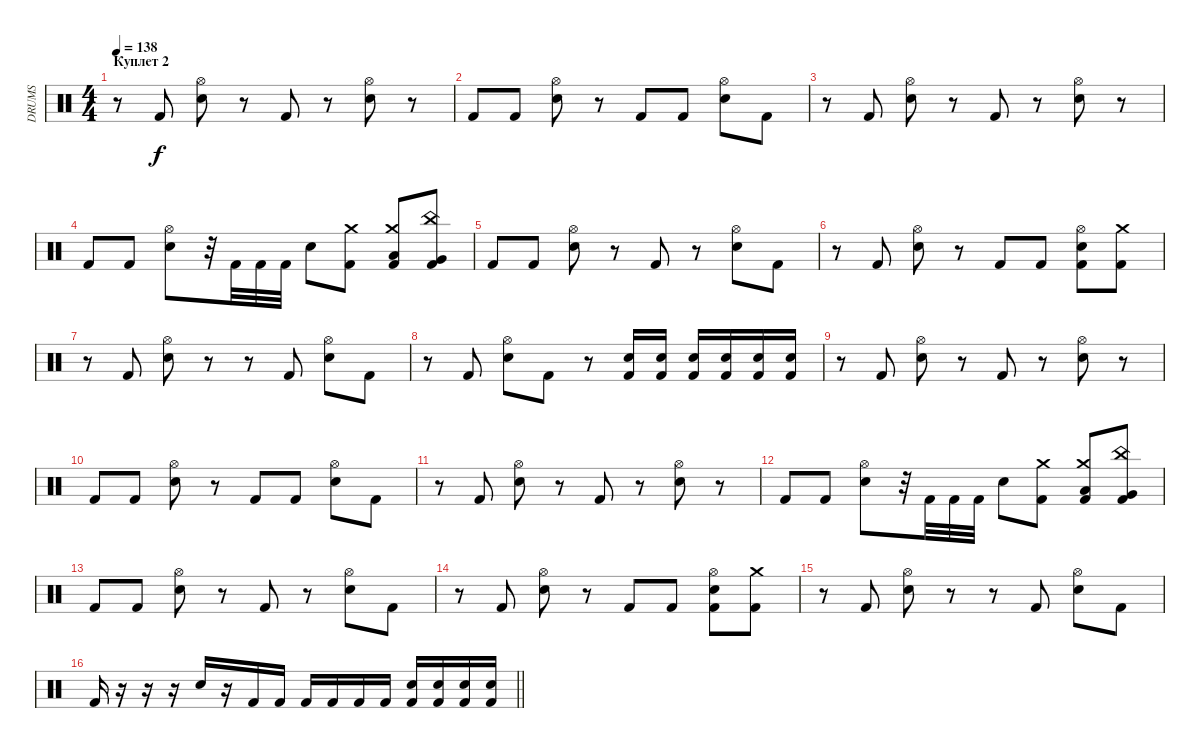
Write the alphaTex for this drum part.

\track ("DRUMS" "DRUMS") {instrument percussion}
\staff {score}
\articulation defaults
\ts (4 4)
\section ("" "Куплет 2")
\tempo 138
\clef neutral
\ks c
r.8{dy f} "Kick (hit) 2".8 ("Hi-Hat (open)" "Electric Snare (hit)").8 r.8 "Kick (hit) 2".8 r.8 ("Hi-Hat (open)" "Electric Snare (hit)").8 r.8 |
"Kick (hit) 2".8 "Kick (hit) 2".8 ("Hi-Hat (open)" "Electric Snare (hit)").8 r.8 "Kick (hit) 2".8 "Kick (hit) 2".8 ("Hi-Hat (open)" "Electric Snare (hit)").8 "Kick (hit) 2".8 |
r.8 "Kick (hit) 2".8 ("Hi-Hat (open)" "Electric Snare (hit)").8 r.8 "Kick (hit) 2".8 r.8 ("Hi-Hat (open)" "Electric Snare (hit)").8 r.8 |
"Kick (hit) 2".8 "Kick (hit) 2".8 ("Hi-Hat (open)" "Electric Snare (hit)").8 r.32 "Kick (hit) 2".32 "Kick (hit) 2".32 "Kick (hit) 2".32 "Electric Snare (hit)".8 ("Crash medium (hit)" "Kick (hit) 2").8 ("Crash medium (hit)" "Low Floor Tom (hit)" "Kick (hit) 2").8 ("China (hit)" "Very Low Tom (hit)" "Kick (hit) 2").8 |
"Kick (hit) 2".8 "Kick (hit) 2".8 ("Hi-Hat (open)" "Electric Snare (hit)").8 r.8 "Kick (hit) 2".8 r.8 ("Hi-Hat (open)" "Electric Snare (hit)").8 "Kick (hit) 2".8 |
r.8 "Kick (hit) 2".8 ("Hi-Hat (open)" "Electric Snare (hit)").8 r.8 "Kick (hit) 2".8 "Kick (hit) 2".8 ("Hi-Hat (open)" "Electric Snare (hit)" "Kick (hit) 2").8 ("Crash medium (hit)" "Kick (hit) 2").8 |
r.8 "Kick (hit) 2".8 ("Hi-Hat (open)" "Electric Snare (hit)").8 r.8 r.8 "Kick (hit) 2".8 ("Hi-Hat (open)" "Electric Snare (hit)").8 "Kick (hit) 2".8 |
r.8 "Kick (hit) 2".8 ("Hi-Hat (open)" "Electric Snare (hit)").8 "Kick (hit) 2".8 r.8 ("Electric Snare (hit)" "Kick (hit) 2").16 ("Electric Snare (hit)" "Kick (hit) 2").16 ("Electric Snare (hit)" "Kick (hit) 2").16 ("Electric Snare (hit)" "Kick (hit) 2").16 ("Electric Snare (hit)" "Kick (hit) 2").16 ("Electric Snare (hit)" "Kick (hit) 2").16 |
r.8 "Kick (hit) 2".8 ("Hi-Hat (open)" "Electric Snare (hit)").8 r.8 "Kick (hit) 2".8 r.8 ("Hi-Hat (open)" "Electric Snare (hit)").8 r.8 |
"Kick (hit) 2".8 "Kick (hit) 2".8 ("Hi-Hat (open)" "Electric Snare (hit)").8 r.8 "Kick (hit) 2".8 "Kick (hit) 2".8 ("Hi-Hat (open)" "Electric Snare (hit)").8 "Kick (hit) 2".8 |
r.8 "Kick (hit) 2".8 ("Hi-Hat (open)" "Electric Snare (hit)").8 r.8 "Kick (hit) 2".8 r.8 ("Hi-Hat (open)" "Electric Snare (hit)").8 r.8 |
"Kick (hit) 2".8 "Kick (hit) 2".8 ("Hi-Hat (open)" "Electric Snare (hit)").8 r.32 "Kick (hit) 2".32 "Kick (hit) 2".32 "Kick (hit) 2".32 "Electric Snare (hit)".8 ("Crash medium (hit)" "Kick (hit) 2").8 ("Crash medium (hit)" "Low Floor Tom (hit)" "Kick (hit) 2").8 ("China (hit)" "Very Low Tom (hit)" "Kick (hit) 2").8 |
"Kick (hit) 2".8 "Kick (hit) 2".8 ("Hi-Hat (open)" "Electric Snare (hit)").8 r.8 "Kick (hit) 2".8 r.8 ("Hi-Hat (open)" "Electric Snare (hit)").8 "Kick (hit) 2".8 |
r.8 "Kick (hit) 2".8 ("Hi-Hat (open)" "Electric Snare (hit)").8 r.8 "Kick (hit) 2".8 "Kick (hit) 2".8 ("Hi-Hat (open)" "Electric Snare (hit)" "Kick (hit) 2").8 ("Crash medium (hit)" "Kick (hit) 2").8 |
r.8 "Kick (hit) 2".8 ("Hi-Hat (open)" "Electric Snare (hit)").8 r.8 r.8 "Kick (hit) 2".8 ("Hi-Hat (open)" "Electric Snare (hit)").8 "Kick (hit) 2".8 |
\barLineRight lightlight "Kick (hit) 2".16
r.16 r.16 r.16 "Electric Snare (hit)".16 r.16 "Kick (hit) 2".16 "Kick (hit) 2".16 "Kick (hit) 2".16 "Kick (hit) 2".16 "Kick (hit) 2".16 "Kick (hit) 2".16 ("Electric Snare (hit)" "Kick (hit) 2").16 ("Electric Snare (hit)" "Kick (hit) 2").16 ("Electric Snare (hit)" "Kick (hit) 2").16 ("Electric Snare (hit)" "Kick (hit) 2").16
